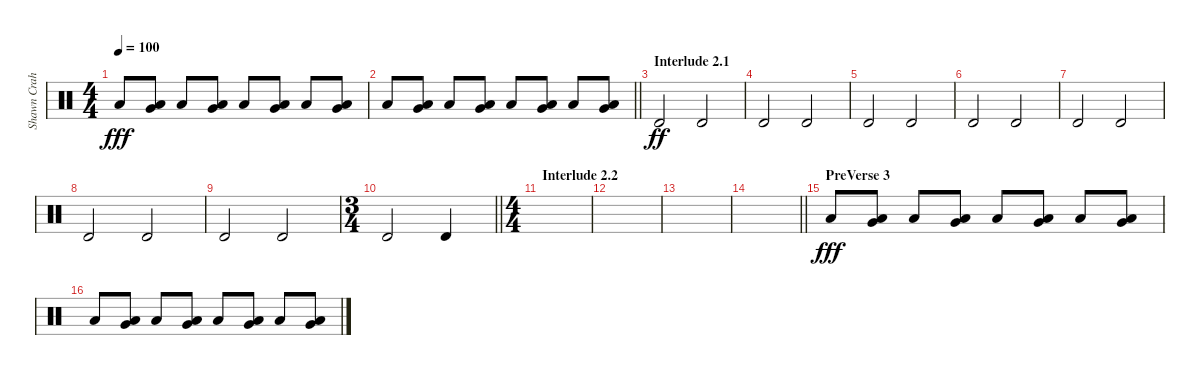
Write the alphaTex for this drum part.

\track ("Shawn Crahan" "Shawn Crah") {instrument percussion}
\staff {score}
\articulation defaults
\ts (4 4)
\tempo 100
\clef neutral
\ks c "Low Floor Tom (hit)".8{dy fff}
("Very Low Tom (hit)" "Low Floor Tom (hit)").8 "Low Floor Tom (hit)".8 ("Very Low Tom (hit)" "Low Floor Tom (hit)").8 "Low Floor Tom (hit)".8 ("Very Low Tom (hit)" "Low Floor Tom (hit)").8 "Low Floor Tom (hit)".8 ("Very Low Tom (hit)" "Low Floor Tom (hit)").8 |
\barLineRight lightlight "Low Floor Tom (hit)".8
("Very Low Tom (hit)" "Low Floor Tom (hit)").8 "Low Floor Tom (hit)".8 ("Very Low Tom (hit)" "Low Floor Tom (hit)").8 "Low Floor Tom (hit)".8 ("Very Low Tom (hit)" "Low Floor Tom (hit)").8 "Low Floor Tom (hit)".8 ("Very Low Tom (hit)" "Low Floor Tom (hit)").8 |
\section ("" "Interlude 2.1")
"Timbale high (hit)".2{dy ff} "Timbale high (hit)".2 |
"Timbale high (hit)".2 "Timbale high (hit)".2 |
"Timbale high (hit)".2 "Timbale high (hit)".2 |
"Timbale high (hit)".2 "Timbale high (hit)".2 |
"Timbale high (hit)".2 "Timbale high (hit)".2 |
"Timbale high (hit)".2 "Timbale high (hit)".2 |
"Timbale high (hit)".2 "Timbale high (hit)".2 |
\ts (3 4)
\barLineRight lightlight "Timbale high (hit)".2 "Timbale high (hit)".4
|
\ts (4 4)
\section ("" "Interlude 2.2")
|
|
|
\barLineRight lightlight
|
\section ("" "PreVerse 3")
"Low Floor Tom (hit)".8{dy fff} ("Very Low Tom (hit)" "Low Floor Tom (hit)").8 "Low Floor Tom (hit)".8 ("Very Low Tom (hit)" "Low Floor Tom (hit)").8 "Low Floor Tom (hit)".8 ("Very Low Tom (hit)" "Low Floor Tom (hit)").8 "Low Floor Tom (hit)".8 ("Very Low Tom (hit)" "Low Floor Tom (hit)").8 |
"Low Floor Tom (hit)".8 ("Very Low Tom (hit)" "Low Floor Tom (hit)").8 "Low Floor Tom (hit)".8 ("Very Low Tom (hit)" "Low Floor Tom (hit)").8 "Low Floor Tom (hit)".8 ("Very Low Tom (hit)" "Low Floor Tom (hit)").8 "Low Floor Tom (hit)".8 ("Very Low Tom (hit)" "Low Floor Tom (hit)").8
